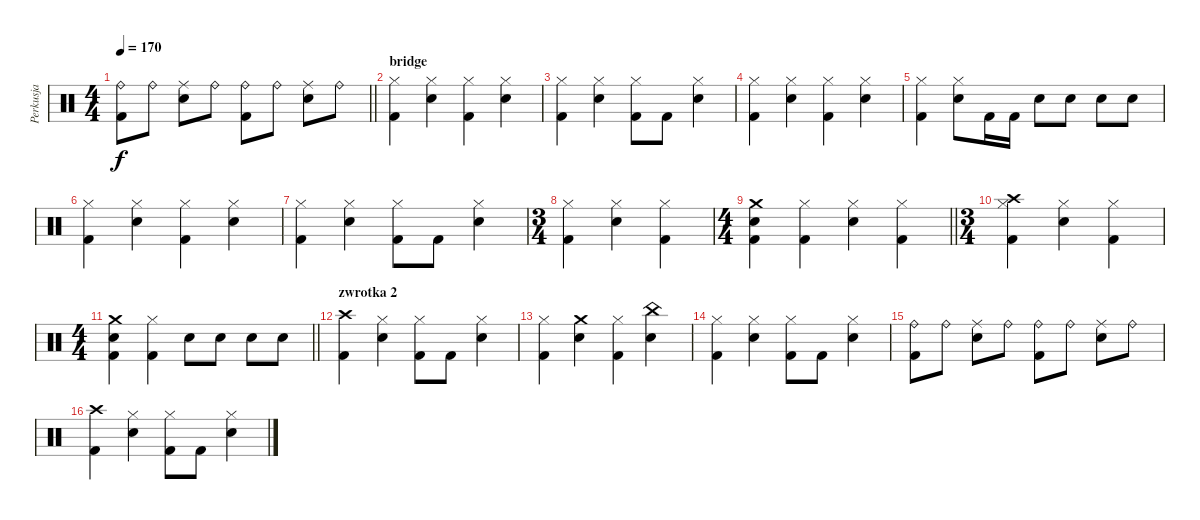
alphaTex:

\track ("Perkusja" "Perkusja") {instrument percussion}
\staff {score}
\articulation defaults
\ts (4 4)
\tempo 170
\clef neutral
\barLineRight lightlight
\ks c
("Ride (bell)" "Kick (hit) 2").8{dy f} "Ride (bell)".8 ("Ride (middle)" "Snare (hit) 2").8 "Ride (bell)".8 ("Ride (bell)" "Kick (hit) 2").8 "Ride (bell)".8 ("Ride (middle)" "Snare (hit) 2").8 "Ride (bell)".8 |
\section ("" "bridge")
("Hi-Hat (closed)" "Kick (hit) 2").4 ("Hi-Hat (closed)" "Snare (hit) 2").4 ("Hi-Hat (closed)" "Kick (hit) 2").4 ("Hi-Hat (closed)" "Snare (hit) 2").4 |
("Hi-Hat (closed)" "Kick (hit) 2").4 ("Hi-Hat (closed)" "Snare (hit) 2").4 ("Hi-Hat (closed)" "Kick (hit) 2").8 "Kick (hit) 2".8 ("Hi-Hat (closed)" "Snare (hit) 2").4 |
("Hi-Hat (closed)" "Kick (hit) 2").4 ("Hi-Hat (closed)" "Snare (hit) 2").4 ("Hi-Hat (closed)" "Kick (hit) 2").4 ("Hi-Hat (closed)" "Snare (hit) 2").4 |
("Hi-Hat (closed)" "Kick (hit) 2").4 ("Hi-Hat (closed)" "Snare (hit) 2").8 "Kick (hit) 2".16 "Kick (hit) 2".16 "Snare (hit) 2".8 "Snare (hit) 2".8 "Snare (hit) 2".8 "Snare (hit) 2".8 |
("Hi-Hat (closed)" "Kick (hit) 2").4 ("Hi-Hat (closed)" "Snare (hit) 2").4 ("Hi-Hat (closed)" "Kick (hit) 2").4 ("Hi-Hat (closed)" "Snare (hit) 2").4 |
("Hi-Hat (closed)" "Kick (hit) 2").4 ("Hi-Hat (closed)" "Snare (hit) 2").4 ("Hi-Hat (closed)" "Kick (hit) 2").8 "Kick (hit) 2".8 ("Hi-Hat (closed)" "Snare (hit) 2").4 |
\ts (3 4)
("Hi-Hat (closed)" "Kick (hit) 2").4 ("Hi-Hat (closed)" "Snare (hit) 2").4 ("Hi-Hat (closed)" "Kick (hit) 2").4 |
\ts (4 4)
\barLineRight lightlight
("Crash medium (hit)" "Kick (hit) 2" "Snare (hit) 2").4 ("Hi-Hat (closed)" "Kick (hit) 2").4 ("Hi-Hat (closed)" "Snare (hit) 2").4 ("Hi-Hat (closed)" "Kick (hit) 2").4 |
\ts (3 4)
("Hi-Hat (closed)" "Kick (hit) 2" "Crash high (hit)").4 ("Hi-Hat (closed)" "Snare (hit) 2").4 ("Hi-Hat (closed)" "Kick (hit) 2").4 |
\ts (4 4)
\barLineRight lightlight
("Crash medium (hit)" "Kick (hit) 2" "Snare (hit) 2").4 ("Hi-Hat (closed)" "Kick (hit) 2").4 "Snare (hit) 2".8 "Snare (hit) 2".8 "Snare (hit) 2".8 "Snare (hit) 2".8 |
\section ("" "zwrotka 2")
("Crash high (hit)" "Kick (hit) 2").4 ("Hi-Hat (closed)" "Snare (hit) 2").4 ("Hi-Hat (closed)" "Kick (hit) 2").8 "Kick (hit) 2".8 ("Hi-Hat (closed)" "Snare (hit) 2").4 |
("Hi-Hat (closed)" "Kick (hit) 2").4 ("Crash medium (hit)" "Snare (hit) 2").4 ("Hi-Hat (closed)" "Kick (hit) 2").4 ("China (hit)" "Snare (hit) 2").4 |
("Hi-Hat (closed)" "Kick (hit) 2").4 ("Hi-Hat (closed)" "Snare (hit) 2").4 ("Hi-Hat (closed)" "Kick (hit) 2").8 "Kick (hit) 2".8 ("Hi-Hat (closed)" "Snare (hit) 2").4 |
("Ride (bell)" "Kick (hit) 2").8 "Ride (bell)".8 ("Ride (middle)" "Snare (hit) 2").8 "Ride (bell)".8 ("Ride (bell)" "Kick (hit) 2").8 "Ride (bell)".8 ("Ride (middle)" "Snare (hit) 2").8 "Ride (bell)".8 |
("Crash high (hit)" "Kick (hit) 2").4 ("Hi-Hat (closed)" "Snare (hit) 2").4 ("Hi-Hat (closed)" "Kick (hit) 2").8 "Kick (hit) 2".8 ("Hi-Hat (closed)" "Snare (hit) 2").4
